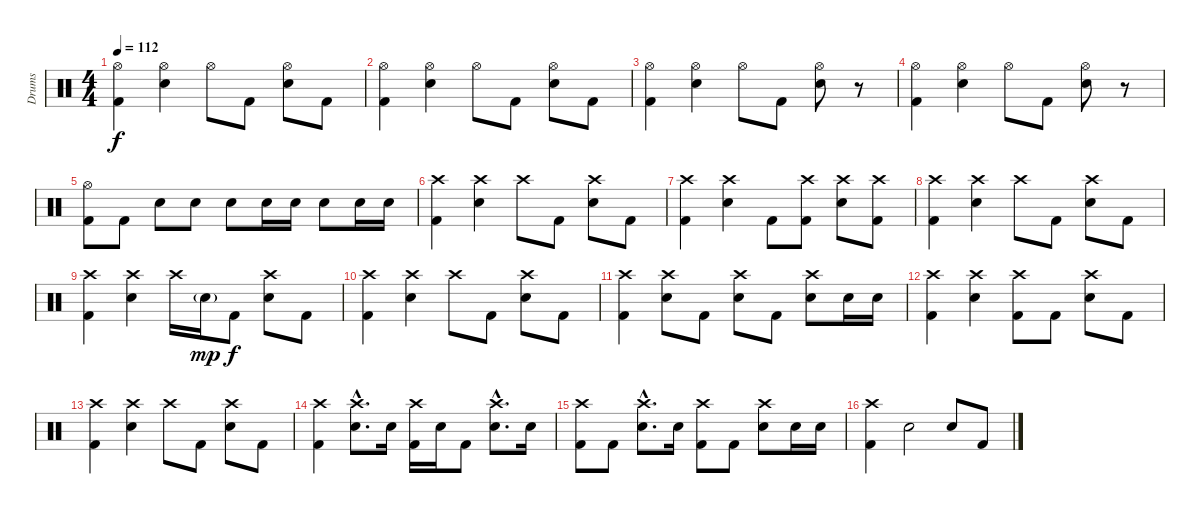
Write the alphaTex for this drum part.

\track ("Drums" "Drums") {instrument percussion}
\staff {score}
\articulation defaults
\ts (4 4)
\tempo 112
\clef neutral
\ks c
("Hi-Hat (open)" "Kick (hit) 2").4{dy f} ("Hi-Hat (open)" "Snare (hit) 2").4 "Hi-Hat (open)".8 "Kick (hit) 2".8 ("Hi-Hat (open)" "Snare (hit) 2").8 "Kick (hit) 2".8 |
("Hi-Hat (open)" "Kick (hit) 2").4 ("Hi-Hat (open)" "Snare (hit) 2").4 "Hi-Hat (open)".8 "Kick (hit) 2".8 ("Hi-Hat (open)" "Snare (hit) 2").8 "Kick (hit) 2".8 |
("Hi-Hat (open)" "Kick (hit) 2").4 ("Hi-Hat (open)" "Snare (hit) 2").4 "Hi-Hat (open)".8 "Kick (hit) 2".8 ("Hi-Hat (open)" "Snare (hit) 2").8 r.8 |
("Hi-Hat (open)" "Kick (hit) 2").4 ("Hi-Hat (open)" "Snare (hit) 2").4 "Hi-Hat (open)".8 "Kick (hit) 2".8 ("Hi-Hat (open)" "Snare (hit) 2").8 r.8 |
("Hi-Hat (open)" "Kick (hit) 2").8 "Kick (hit) 2".8 "Snare (hit) 2".8 "Snare (hit) 2".8 "Snare (hit) 2".8 "Snare (hit) 2".16 "Snare (hit) 2".16 "Snare (hit) 2".8 "Snare (hit) 2".16 "Snare (hit) 2".16 |
("Crash high (hit)" "Kick (hit) 2").4 ("Crash high (hit)" "Snare (hit) 2").4 "Crash high (hit)".8 "Kick (hit) 2".8 ("Crash high (hit)" "Snare (hit) 2").8 "Kick (hit) 2".8 |
("Crash high (hit)" "Kick (hit) 2").4 ("Crash high (hit)" "Snare (hit) 2").4 "Kick (hit) 2".8 ("Crash high (hit)" "Kick (hit) 2").8 ("Crash high (hit)" "Snare (hit) 2").8 ("Crash high (hit)" "Kick (hit) 2").8 |
("Crash high (hit)" "Kick (hit) 2").4 ("Crash high (hit)" "Snare (hit) 2").4 "Crash high (hit)".8 "Kick (hit) 2".8 ("Crash high (hit)" "Snare (hit) 2").8 "Kick (hit) 2".8 |
("Crash high (hit)" "Kick (hit) 2").4 ("Crash high (hit)" "Snare (hit) 2").4 "Crash high (hit)".16 "Snare (hit) 2"{g}.16{dy mp} "Kick (hit) 2".8{dy f} ("Crash high (hit)" "Snare (hit) 2").8 "Kick (hit) 2".8 |
("Crash high (hit)" "Kick (hit) 2").4 ("Crash high (hit)" "Snare (hit) 2").4 "Crash high (hit)".8 "Kick (hit) 2".8 ("Crash high (hit)" "Snare (hit) 2").8 "Kick (hit) 2".8 |
("Crash high (hit)" "Kick (hit) 2").4 ("Crash high (hit)" "Snare (hit) 2").8 "Kick (hit) 2".8 ("Crash high (hit)" "Snare (hit) 2").8 "Kick (hit) 2".8 ("Crash high (hit)" "Snare (hit) 2").8 "Snare (hit) 2".16 "Snare (hit) 2".16 |
("Crash high (hit)" "Kick (hit) 2").4 ("Crash high (hit)" "Snare (hit) 2").4 ("Crash high (hit)" "Kick (hit) 2").8 "Kick (hit) 2".8 ("Crash high (hit)" "Snare (hit) 2").8 "Kick (hit) 2".8 |
("Crash high (hit)" "Kick (hit) 2").4 ("Crash high (hit)" "Snare (hit) 2").4 "Crash high (hit)".8 "Kick (hit) 2".8 ("Crash high (hit)" "Snare (hit) 2").8 "Kick (hit) 2".8 |
("Crash high (hit)" "Kick (hit) 2").4 ("Crash high (hit)"{hac} "Snare (hit) 2"{hac}).8{d} "Snare (hit) 2".16 ("Crash high (hit)" "Kick (hit) 2").16 "Snare (hit) 2".16 "Kick (hit) 2".8 ("Crash high (hit)"{hac} "Snare (hit) 2"{hac}).8{d} "Snare (hit) 2".16 |
("Crash high (hit)" "Kick (hit) 2").8 "Kick (hit) 2".8 ("Crash high (hit)"{hac} "Snare (hit) 2"{hac}).8{d} "Snare (hit) 2".16 ("Crash high (hit)" "Kick (hit) 2").8 "Kick (hit) 2".8 ("Crash high (hit)" "Snare (hit) 2").8 "Snare (hit) 2".16 "Snare (hit) 2".16 |
("Crash high (hit)" "Kick (hit) 2").4 "Snare (hit) 2".2 "Snare (hit) 2".8 "Kick (hit) 2".8
